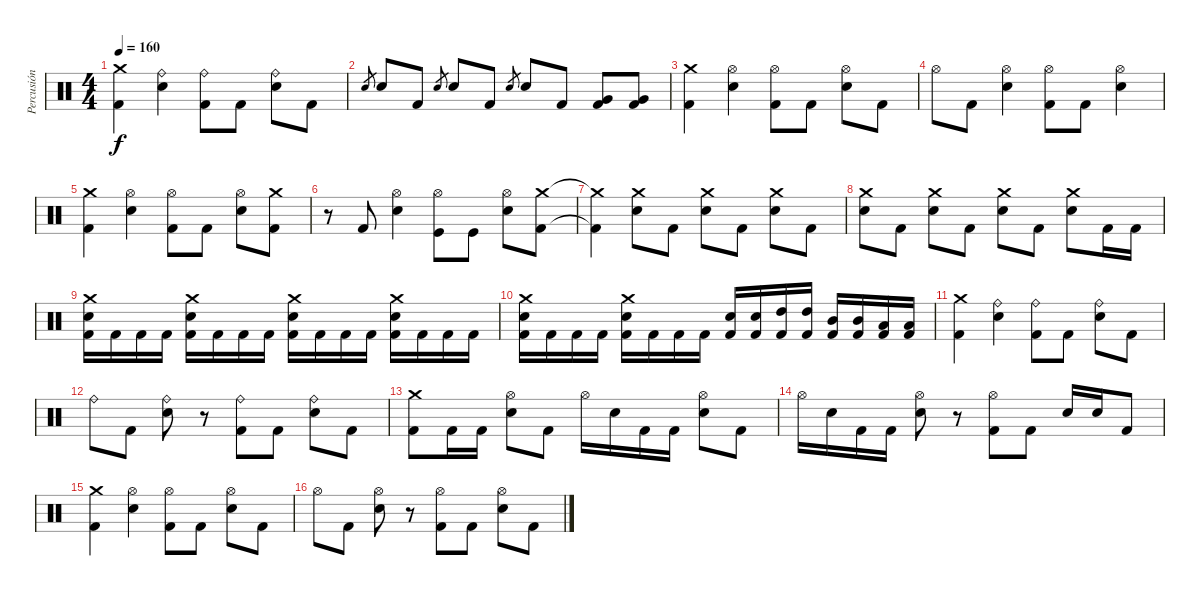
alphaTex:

\track ("Percusión" "Percusión") {instrument percussion}
\staff {score}
\articulation defaults
\ts (4 4)
\tempo 160
\clef neutral
\ks c
("Crash medium (hit)" "Kick (hit) 2").4{dy f} ("Ride (bell)" "Snare (hit) 2").4 ("Ride (bell)" "Kick (hit) 2").8 "Kick (hit) 2".8 ("Ride (bell)" "Snare (hit) 2").8 "Kick (hit) 2".8 |
"Snare (hit) 2".8{gr} "Snare (hit) 2".8 "Kick (hit) 2".8 "Snare (hit) 2".8{gr} "Snare (hit) 2".8 "Kick (hit) 2".8 "Snare (hit) 2".8{gr} "Snare (hit) 2".8 "Kick (hit) 2".8 ("Very Low Tom (hit)" "Kick (hit) 2").8 ("Very Low Tom (hit)" "Kick (hit) 2").8 |
("Crash medium (hit)" "Kick (hit) 2").4 ("Hi-Hat (open)" "Snare (hit) 2").4 ("Hi-Hat (open)" "Kick (hit) 2").8 "Kick (hit) 2".8 ("Hi-Hat (open)" "Snare (hit) 2").8 "Kick (hit) 2".8 |
"Hi-Hat (open)".8 "Kick (hit) 2".8 ("Hi-Hat (open)" "Snare (hit) 2").4 ("Hi-Hat (open)" "Kick (hit) 2").8 "Kick (hit) 2".8 ("Hi-Hat (open)" "Snare (hit) 2").4 |
("Crash medium (hit)" "Kick (hit) 2").4 ("Hi-Hat (open)" "Snare (hit) 2").4 ("Hi-Hat (open)" "Kick (hit) 2").8 "Kick (hit) 2".8 ("Hi-Hat (open)" "Snare (hit) 2").8 ("Crash medium (hit)" "Kick (hit) 2").8 |
r.8 "Kick (hit) 2".8 ("Hi-Hat (open)" "Snare (hit) 2").4 ("Hi-Hat (open)" "Kick (hit)").8 "Kick (hit)".8 ("Hi-Hat (open)" "Snare (hit) 2").8 ("Crash medium (hit)" "Kick (hit) 2").8 |
("Crash medium (hit)"{t} "Kick (hit) 2"{t}).4 ("Crash medium (hit)" "Snare (hit) 2").8 "Kick (hit) 2".8 ("Crash medium (hit)" "Snare (hit) 2").8 "Kick (hit) 2".8 ("Crash medium (hit)" "Snare (hit) 2").8 "Kick (hit) 2".8 |
("Crash medium (hit)" "Snare (hit) 2").8 "Kick (hit) 2".8 ("Crash medium (hit)" "Snare (hit) 2").8 "Kick (hit) 2".8 ("Crash medium (hit)" "Snare (hit) 2").8 "Kick (hit) 2".8 ("Crash medium (hit)" "Snare (hit) 2").8 "Kick (hit) 2".16 "Kick (hit) 2".16 |
("Crash medium (hit)" "Snare (hit) 2" "Kick (hit) 2").16 "Kick (hit) 2".16 "Kick (hit) 2".16 "Kick (hit) 2".16 ("Crash medium (hit)" "Snare (hit) 2" "Kick (hit) 2").16 "Kick (hit) 2".16 "Kick (hit) 2".16 "Kick (hit) 2".16 ("Crash medium (hit)" "Snare (hit) 2" "Kick (hit) 2").16 "Kick (hit) 2".16 "Kick (hit) 2".16 "Kick (hit) 2".16 ("Crash medium (hit)" "Snare (hit) 2" "Kick (hit) 2").16 "Kick (hit) 2".16 "Kick (hit) 2".16 "Kick (hit) 2".16 |
("Crash medium (hit)" "Snare (hit) 2" "Kick (hit) 2").16 "Kick (hit) 2".16 "Kick (hit) 2".16 "Kick (hit) 2".16 ("Crash medium (hit)" "Snare (hit) 2" "Kick (hit) 2").16 "Kick (hit) 2".16 "Kick (hit) 2".16 "Kick (hit) 2".16 ("Snare (hit) 2" "Kick (hit) 2").16 ("Snare (hit) 2" "Kick (hit) 2").16 ("High Tom (hit)" "Kick (hit) 2").16 ("High Tom (hit)" "Kick (hit) 2").16 ("Mid Tom (hit)" "Kick (hit) 2").16 ("Mid Tom (hit)" "Kick (hit) 2").16 ("Low Tom (hit)" "Kick (hit) 2").16 ("Low Tom (hit)" "Kick (hit) 2").16 |
("Crash medium (hit)" "Kick (hit) 2").4 ("Ride (bell)" "Snare (hit) 2").4 ("Ride (bell)" "Kick (hit) 2").8 "Kick (hit) 2".8 ("Ride (bell)" "Snare (hit) 2").8 "Kick (hit) 2".8 |
"Ride (bell)".8 "Kick (hit) 2".8 ("Ride (bell)" "Snare (hit) 2").8 r.8 ("Ride (bell)" "Kick (hit) 2").8 "Kick (hit) 2".8 ("Ride (bell)" "Snare (hit) 2").8 "Kick (hit) 2".8 |
("Crash medium (hit)" "Kick (hit) 2").8 "Kick (hit) 2".16 "Kick (hit) 2".16 ("Hi-Hat (open)" "Snare (hit) 2").8 "Kick (hit) 2".8 "Hi-Hat (open)".16 "Snare (hit) 2".16 "Kick (hit) 2".16 "Kick (hit) 2".16 ("Hi-Hat (open)" "Snare (hit) 2").8 "Kick (hit) 2".8 |
"Hi-Hat (open)".16 "Snare (hit) 2".16 "Kick (hit) 2".16 "Kick (hit) 2".16 ("Hi-Hat (open)" "Snare (hit) 2").8 r.8 ("Hi-Hat (open)" "Kick (hit) 2").8 "Kick (hit) 2".8 "Snare (hit) 2".16 "Snare (hit) 2".16 "Kick (hit) 2".8 |
("Crash medium (hit)" "Kick (hit) 2").4 ("Hi-Hat (open)" "Snare (hit) 2").4 ("Hi-Hat (open)" "Kick (hit) 2").8 "Kick (hit) 2".8 ("Hi-Hat (open)" "Snare (hit) 2").8 "Kick (hit) 2".8 |
"Hi-Hat (open)".8 "Kick (hit) 2".8 ("Hi-Hat (open)" "Snare (hit) 2").8 r.8 ("Hi-Hat (open)" "Kick (hit) 2").8 "Kick (hit) 2".8 ("Hi-Hat (open)" "Snare (hit) 2").8 "Kick (hit) 2".8
